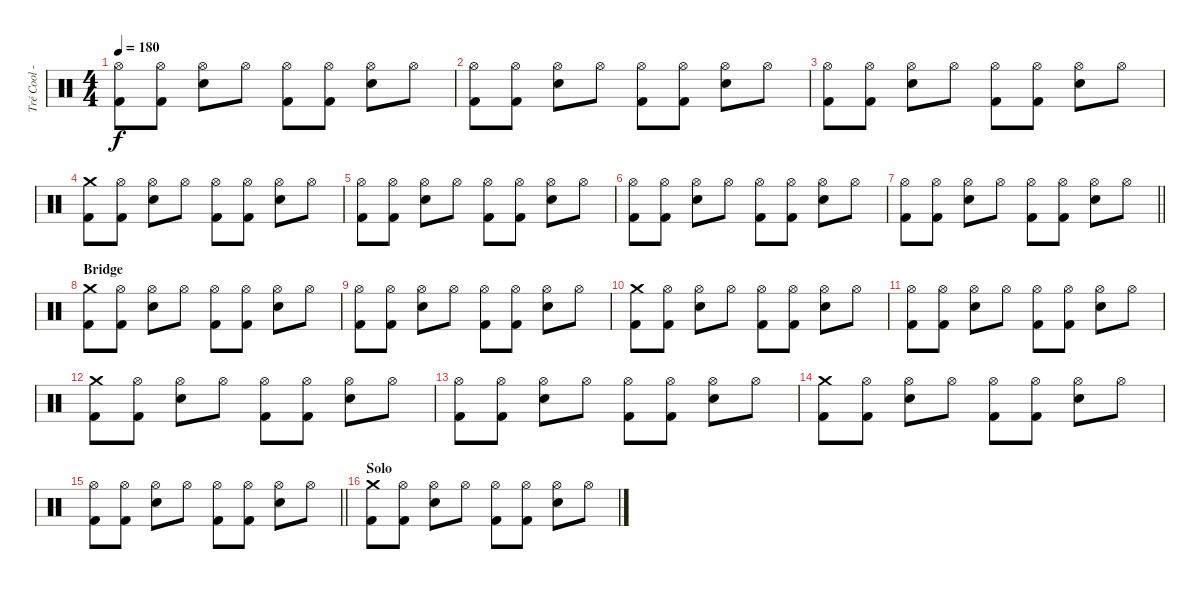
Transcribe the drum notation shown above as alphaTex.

\track ("Tré Cool - Drums" "Tré Cool -") {instrument percussion}
\staff {score}
\articulation defaults
\ts (4 4)
\tempo 180
\clef neutral
\ks c
("Hi-Hat (open)" "Kick (hit) 2").8{dy f} ("Hi-Hat (open)" "Kick (hit) 2").8 ("Hi-Hat (open)" "Electric Snare (hit)").8 "Hi-Hat (open)".8 ("Hi-Hat (open)" "Kick (hit) 2").8 ("Hi-Hat (open)" "Kick (hit) 2").8 ("Hi-Hat (open)" "Electric Snare (hit)").8 "Hi-Hat (open)".8 |
("Hi-Hat (open)" "Kick (hit) 2").8 ("Hi-Hat (open)" "Kick (hit) 2").8 ("Hi-Hat (open)" "Electric Snare (hit)").8 "Hi-Hat (open)".8 ("Hi-Hat (open)" "Kick (hit) 2").8 ("Hi-Hat (open)" "Kick (hit) 2").8 ("Hi-Hat (open)" "Electric Snare (hit)").8 "Hi-Hat (open)".8 |
("Hi-Hat (open)" "Kick (hit) 2").8 ("Hi-Hat (open)" "Kick (hit) 2").8 ("Hi-Hat (open)" "Electric Snare (hit)").8 "Hi-Hat (open)".8 ("Hi-Hat (open)" "Kick (hit) 2").8 ("Hi-Hat (open)" "Kick (hit) 2").8 ("Hi-Hat (open)" "Electric Snare (hit)").8 "Hi-Hat (open)".8 |
("Crash medium (hit)" "Kick (hit) 2").8 ("Hi-Hat (open)" "Kick (hit) 2").8 ("Hi-Hat (open)" "Electric Snare (hit)").8 "Hi-Hat (open)".8 ("Hi-Hat (open)" "Kick (hit) 2").8 ("Hi-Hat (open)" "Kick (hit) 2").8 ("Hi-Hat (open)" "Electric Snare (hit)").8 "Hi-Hat (open)".8 |
("Hi-Hat (open)" "Kick (hit) 2").8 ("Hi-Hat (open)" "Kick (hit) 2").8 ("Hi-Hat (open)" "Electric Snare (hit)").8 "Hi-Hat (open)".8 ("Hi-Hat (open)" "Kick (hit) 2").8 ("Hi-Hat (open)" "Kick (hit) 2").8 ("Hi-Hat (open)" "Electric Snare (hit)").8 "Hi-Hat (open)".8 |
("Hi-Hat (open)" "Kick (hit) 2").8 ("Hi-Hat (open)" "Kick (hit) 2").8 ("Hi-Hat (open)" "Electric Snare (hit)").8 "Hi-Hat (open)".8 ("Hi-Hat (open)" "Kick (hit) 2").8 ("Hi-Hat (open)" "Kick (hit) 2").8 ("Hi-Hat (open)" "Electric Snare (hit)").8 "Hi-Hat (open)".8 |
\barLineRight lightlight
("Hi-Hat (open)" "Kick (hit) 2").8 ("Hi-Hat (open)" "Kick (hit) 2").8 ("Hi-Hat (open)" "Electric Snare (hit)").8 "Hi-Hat (open)".8 ("Hi-Hat (open)" "Kick (hit) 2").8 ("Hi-Hat (open)" "Kick (hit) 2").8 ("Hi-Hat (open)" "Electric Snare (hit)").8 "Hi-Hat (open)".8 |
\section ("" "Bridge")
("Crash medium (hit)" "Kick (hit) 2").8 ("Hi-Hat (open)" "Kick (hit) 2").8 ("Hi-Hat (open)" "Electric Snare (hit)").8 "Hi-Hat (open)".8 ("Hi-Hat (open)" "Kick (hit) 2").8 ("Hi-Hat (open)" "Kick (hit) 2").8 ("Hi-Hat (open)" "Electric Snare (hit)").8 "Hi-Hat (open)".8 |
("Hi-Hat (open)" "Kick (hit) 2").8 ("Hi-Hat (open)" "Kick (hit) 2").8 ("Hi-Hat (open)" "Electric Snare (hit)").8 "Hi-Hat (open)".8 ("Hi-Hat (open)" "Kick (hit) 2").8 ("Hi-Hat (open)" "Kick (hit) 2").8 ("Hi-Hat (open)" "Electric Snare (hit)").8 "Hi-Hat (open)".8 |
("Crash medium (hit)" "Kick (hit) 2").8 ("Hi-Hat (open)" "Kick (hit) 2").8 ("Hi-Hat (open)" "Electric Snare (hit)").8 "Hi-Hat (open)".8 ("Hi-Hat (open)" "Kick (hit) 2").8 ("Hi-Hat (open)" "Kick (hit) 2").8 ("Hi-Hat (open)" "Electric Snare (hit)").8 "Hi-Hat (open)".8 |
("Hi-Hat (open)" "Kick (hit) 2").8 ("Hi-Hat (open)" "Kick (hit) 2").8 ("Hi-Hat (open)" "Electric Snare (hit)").8 "Hi-Hat (open)".8 ("Hi-Hat (open)" "Kick (hit) 2").8 ("Hi-Hat (open)" "Kick (hit) 2").8 ("Hi-Hat (open)" "Electric Snare (hit)").8 "Hi-Hat (open)".8 |
("Crash medium (hit)" "Kick (hit) 2").8 ("Hi-Hat (open)" "Kick (hit) 2").8 ("Hi-Hat (open)" "Electric Snare (hit)").8 "Hi-Hat (open)".8 ("Hi-Hat (open)" "Kick (hit) 2").8 ("Hi-Hat (open)" "Kick (hit) 2").8 ("Hi-Hat (open)" "Electric Snare (hit)").8 "Hi-Hat (open)".8 |
("Hi-Hat (open)" "Kick (hit) 2").8 ("Hi-Hat (open)" "Kick (hit) 2").8 ("Hi-Hat (open)" "Electric Snare (hit)").8 "Hi-Hat (open)".8 ("Hi-Hat (open)" "Kick (hit) 2").8 ("Hi-Hat (open)" "Kick (hit) 2").8 ("Hi-Hat (open)" "Electric Snare (hit)").8 "Hi-Hat (open)".8 |
("Crash medium (hit)" "Kick (hit) 2").8 ("Hi-Hat (open)" "Kick (hit) 2").8 ("Hi-Hat (open)" "Electric Snare (hit)").8 "Hi-Hat (open)".8 ("Hi-Hat (open)" "Kick (hit) 2").8 ("Hi-Hat (open)" "Kick (hit) 2").8 ("Hi-Hat (open)" "Electric Snare (hit)").8 "Hi-Hat (open)".8 |
\barLineRight lightlight
("Hi-Hat (open)" "Kick (hit) 2").8 ("Hi-Hat (open)" "Kick (hit) 2").8 ("Hi-Hat (open)" "Electric Snare (hit)").8 "Hi-Hat (open)".8 ("Hi-Hat (open)" "Kick (hit) 2").8 ("Hi-Hat (open)" "Kick (hit) 2").8 ("Hi-Hat (open)" "Electric Snare (hit)").8 "Hi-Hat (open)".8 |
\section ("" "Solo")
("Crash medium (hit)" "Kick (hit) 2").8 ("Hi-Hat (open)" "Kick (hit) 2").8 ("Hi-Hat (open)" "Electric Snare (hit)").8 "Hi-Hat (open)".8 ("Hi-Hat (open)" "Kick (hit) 2").8 ("Hi-Hat (open)" "Kick (hit) 2").8 ("Hi-Hat (open)" "Electric Snare (hit)").8 "Hi-Hat (open)".8
